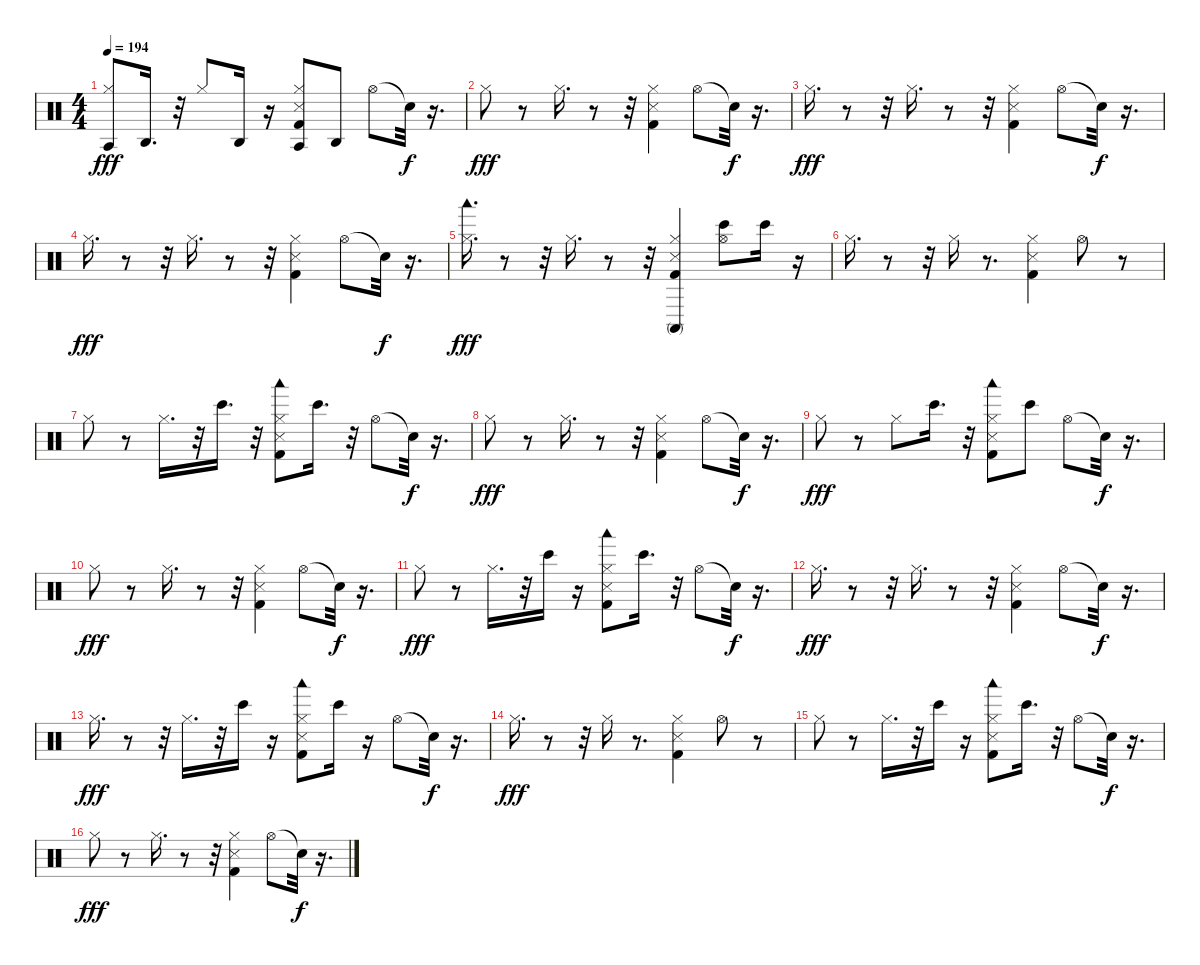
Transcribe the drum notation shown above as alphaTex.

\track "" {instrument percussion}
\staff {score}
\articulation defaults
\ts (4 4)
\tempo 194
\clef neutral
\ks c
("Hi-Hat (closed)" "Agogo tow (hit)").8{dy fff} "Agogo high (hit)".16{d} r.32 "Hi-Hat (closed)".8 "Agogo high (hit)".16 r.16 ("Kick (hit) 2" "Agogo tow (hit)" "Hi-Hat (closed)" "Snare (side stick) 3").8 "Agogo high (hit)".8 "Hi-Hat (open)".8 "Snare (hit)"{t}.32{dy f} r.16{d} |
"Hi-Hat (closed)".8{dy fff} r.8 "Hi-Hat (closed)".16{d} r.8 r.32 ("Kick (hit) 2" "Snare (side stick) 3" "Hi-Hat (closed)").4 "Hi-Hat (open)".8 "Snare (hit)"{t}.32{dy f} r.16{d} |
"Hi-Hat (closed)".16{d dy fff} r.8 r.32 "Hi-Hat (closed)".16{d} r.8 r.32 ("Kick (hit) 2" "Snare (side stick) 3" "Hi-Hat (closed)").4 "Hi-Hat (open)".8 "Snare (hit)"{t}.32{dy f} r.16{d} |
"Hi-Hat (closed)".16{d dy fff} r.8 r.32 "Hi-Hat (closed)".16{d} r.8 r.32 ("Kick (hit) 2" "Snare (side stick) 3" "Hi-Hat (closed)").4 "Hi-Hat (open)".8 "Snare (hit)"{t}.32{dy f} r.16{d} |
("Hi-Hat (closed)" "Woodblock low (hit)").16{d dy fff} r.8 r.32 "Hi-Hat (closed)".16{d} r.8 r.32 ("Kick (hit) 2" "Hi-Hat (closed)" "Snare (side stick) 3" "Conga high (mute)").4 ("Hi-Hat (open)" "Bongo High (hit)").8 "Bongo High (hit)".16 r.16 |
"Hi-Hat (closed)".16{d} r.8 r.32 "Hi-Hat (closed)".16 r.8{d} ("Snare (side stick) 3" "Kick (hit) 2" "Hi-Hat (closed)").4 "Hi-Hat (open)".8 r.8 |
"Hi-Hat (closed)".8 r.8 "Hi-Hat (closed)".16{d} r.32 "Bongo High (hit)".16{d} r.32 ("Snare (side stick) 3" "Kick (hit) 2" "Hi-Hat (closed)" "Woodblock low (hit)").8 "Bongo High (hit)".16{d} r.32 "Hi-Hat (open)".8 "Snare (hit)"{t}.32{dy f} r.16{d} |
"Hi-Hat (closed)".8{dy fff} r.8 "Hi-Hat (closed)".16{d} r.8 r.32 ("Snare (side stick) 3" "Kick (hit) 2" "Hi-Hat (closed)").4 "Hi-Hat (open)".8 "Snare (hit)"{t}.32{dy f} r.16{d} |
"Hi-Hat (closed)".8{dy fff} r.8 "Hi-Hat (closed)".8 "Bongo High (hit)".16{d} r.32 ("Hi-Hat (closed)" "Snare (side stick) 3" "Kick (hit) 2" "Woodblock low (hit)").8 "Bongo High (hit)".8 "Hi-Hat (open)".8 "Snare (hit)"{t}.32{dy f} r.16{d} |
"Hi-Hat (closed)".8{dy fff} r.8 "Hi-Hat (closed)".16{d} r.8 r.32 ("Snare (side stick) 3" "Kick (hit) 2" "Hi-Hat (closed)").4 "Hi-Hat (open)".8 "Snare (hit)"{t}.32{dy f} r.16{d} |
"Hi-Hat (closed)".8{dy fff} r.8 "Hi-Hat (closed)".16{d} r.32 "Bongo High (hit)".16 r.16 ("Snare (side stick) 3" "Kick (hit) 2" "Hi-Hat (closed)" "Woodblock low (hit)").8 "Bongo High (hit)".16{d} r.32 "Hi-Hat (open)".8 "Snare (hit)"{t}.32{dy f} r.16{d} |
"Hi-Hat (closed)".16{d dy fff} r.8 r.32 "Hi-Hat (closed)".16{d} r.8 r.32 ("Kick (hit) 2" "Snare (side stick) 3" "Hi-Hat (closed)").4 "Hi-Hat (open)".8 "Snare (hit)"{t}.32{dy f} r.16{d} |
"Hi-Hat (closed)".16{d dy fff} r.8 r.32 "Hi-Hat (closed)".16{d} r.32 "Bongo High (hit)".16 r.16 ("Kick (hit) 2" "Hi-Hat (closed)" "Snare (side stick) 3" "Woodblock low (hit)").8 "Bongo High (hit)".16 r.16 "Hi-Hat (open)".8 "Snare (hit)"{t}.32{dy f} r.16{d} |
"Hi-Hat (closed)".16{d dy fff} r.8 r.32 "Hi-Hat (closed)".16 r.8{d} ("Kick (hit) 2" "Snare (side stick) 3" "Hi-Hat (closed)").4 "Hi-Hat (open)".8 r.8 |
"Hi-Hat (closed)".8 r.8 "Hi-Hat (closed)".16{d} r.32 "Bongo High (hit)".16 r.16 ("Woodblock low (hit)" "Kick (hit) 2" "Snare (side stick) 3" "Hi-Hat (closed)").8 "Bongo High (hit)".16{d} r.32 "Hi-Hat (open)".8 "Snare (hit)"{t}.32{dy f} r.16{d} |
"Hi-Hat (closed)".8{dy fff} r.8 "Hi-Hat (closed)".16{d} r.8 r.32 ("Kick (hit) 2" "Snare (side stick) 3" "Hi-Hat (closed)").4 "Hi-Hat (open)".8 "Snare (hit)"{t}.32{dy f} r.16{d}
